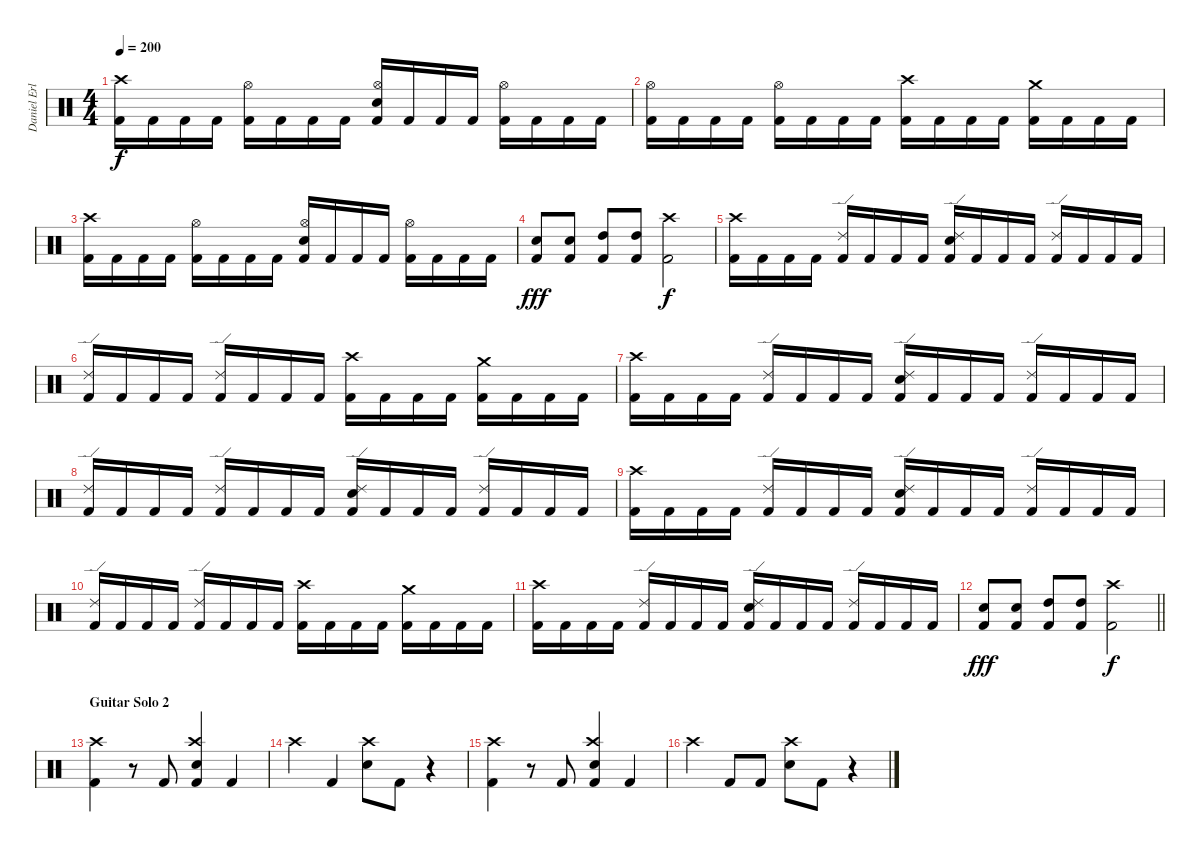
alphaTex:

\track ("Daniel Erlandsson" "Daniel Erl") {instrument percussion}
\staff {score}
\articulation defaults
\ts (4 4)
\tempo 200
\clef neutral
\ks c
("Kick (hit) 2" "Crash high (hit)").16{dy f} "Kick (hit) 2".16 "Kick (hit) 2".16 "Kick (hit) 2".16 ("Kick (hit) 2" "Hi-Hat (open)").16 "Kick (hit) 2".16 "Kick (hit) 2".16 "Kick (hit) 2".16 ("Kick (hit) 2" "Snare (hit) 2" "Hi-Hat (open)").16 "Kick (hit) 2".16 "Kick (hit) 2".16 "Kick (hit) 2".16 ("Kick (hit) 2" "Hi-Hat (open)").16 "Kick (hit) 2".16 "Kick (hit) 2".16 "Kick (hit) 2".16 |
("Kick (hit) 2" "Hi-Hat (open)").16 "Kick (hit) 2".16 "Kick (hit) 2".16 "Kick (hit) 2".16 ("Kick (hit) 2" "Hi-Hat (open)").16 "Kick (hit) 2".16 "Kick (hit) 2".16 "Kick (hit) 2".16 ("Kick (hit) 2" "Crash high (hit)").16 "Kick (hit) 2".16 "Kick (hit) 2".16 "Kick (hit) 2".16 ("Kick (hit) 2" "Crash medium (hit)").16 "Kick (hit) 2".16 "Kick (hit) 2".16 "Kick (hit) 2".16 |
("Kick (hit) 2" "Crash high (hit)").16 "Kick (hit) 2".16 "Kick (hit) 2".16 "Kick (hit) 2".16 ("Kick (hit) 2" "Hi-Hat (open)").16 "Kick (hit) 2".16 "Kick (hit) 2".16 "Kick (hit) 2".16 ("Kick (hit) 2" "Snare (hit) 2" "Hi-Hat (open)").16 "Kick (hit) 2".16 "Kick (hit) 2".16 "Kick (hit) 2".16 ("Kick (hit) 2" "Hi-Hat (open)").16 "Kick (hit) 2".16 "Kick (hit) 2".16 "Kick (hit) 2".16 |
("Kick (hit) 2" "Snare (hit) 2").8{dy fff} ("Kick (hit) 2" "Snare (hit) 2").8 ("Kick (hit) 2" "High Tom (hit)").8 ("Kick (hit) 2" "High Tom (hit)").8 ("Kick (hit) 2" "Crash high (hit)").2{dy f} |
("Kick (hit) 2" "Crash high (hit)").16 "Kick (hit) 2".16 "Kick (hit) 2".16 "Kick (hit) 2".16 ("Kick (hit) 2" "Ride (edge) 2").16 "Kick (hit) 2".16 "Kick (hit) 2".16 "Kick (hit) 2".16 ("Kick (hit) 2" "Snare (hit) 2" "Ride (edge) 2").16 "Kick (hit) 2".16 "Kick (hit) 2".16 "Kick (hit) 2".16 ("Kick (hit) 2" "Ride (edge) 2").16 "Kick (hit) 2".16 "Kick (hit) 2".16 "Kick (hit) 2".16 |
("Kick (hit) 2" "Ride (edge) 2").16 "Kick (hit) 2".16 "Kick (hit) 2".16 "Kick (hit) 2".16 ("Kick (hit) 2" "Ride (edge) 2").16 "Kick (hit) 2".16 "Kick (hit) 2".16 "Kick (hit) 2".16 ("Kick (hit) 2" "Crash high (hit)").16 "Kick (hit) 2".16 "Kick (hit) 2".16 "Kick (hit) 2".16 ("Kick (hit) 2" "Crash medium (hit)").16 "Kick (hit) 2".16 "Kick (hit) 2".16 "Kick (hit) 2".16 |
("Kick (hit) 2" "Crash high (hit)").16 "Kick (hit) 2".16 "Kick (hit) 2".16 "Kick (hit) 2".16 ("Kick (hit) 2" "Ride (edge) 2").16 "Kick (hit) 2".16 "Kick (hit) 2".16 "Kick (hit) 2".16 ("Kick (hit) 2" "Snare (hit) 2" "Ride (edge) 2").16 "Kick (hit) 2".16 "Kick (hit) 2".16 "Kick (hit) 2".16 ("Kick (hit) 2" "Ride (edge) 2").16 "Kick (hit) 2".16 "Kick (hit) 2".16 "Kick (hit) 2".16 |
("Kick (hit) 2" "Ride (edge) 2").16 "Kick (hit) 2".16 "Kick (hit) 2".16 "Kick (hit) 2".16 ("Kick (hit) 2" "Ride (edge) 2").16 "Kick (hit) 2".16 "Kick (hit) 2".16 "Kick (hit) 2".16 ("Kick (hit) 2" "Snare (hit) 2" "Ride (edge) 2").16 "Kick (hit) 2".16 "Kick (hit) 2".16 "Kick (hit) 2".16 ("Kick (hit) 2" "Ride (edge) 2").16 "Kick (hit) 2".16 "Kick (hit) 2".16 "Kick (hit) 2".16 |
("Kick (hit) 2" "Crash high (hit)").16 "Kick (hit) 2".16 "Kick (hit) 2".16 "Kick (hit) 2".16 ("Kick (hit) 2" "Ride (edge) 2").16 "Kick (hit) 2".16 "Kick (hit) 2".16 "Kick (hit) 2".16 ("Kick (hit) 2" "Snare (hit) 2" "Ride (edge) 2").16 "Kick (hit) 2".16 "Kick (hit) 2".16 "Kick (hit) 2".16 ("Kick (hit) 2" "Ride (edge) 2").16 "Kick (hit) 2".16 "Kick (hit) 2".16 "Kick (hit) 2".16 |
("Kick (hit) 2" "Ride (edge) 2").16 "Kick (hit) 2".16 "Kick (hit) 2".16 "Kick (hit) 2".16 ("Kick (hit) 2" "Ride (edge) 2").16 "Kick (hit) 2".16 "Kick (hit) 2".16 "Kick (hit) 2".16 ("Kick (hit) 2" "Crash high (hit)").16 "Kick (hit) 2".16 "Kick (hit) 2".16 "Kick (hit) 2".16 ("Kick (hit) 2" "Crash medium (hit)").16 "Kick (hit) 2".16 "Kick (hit) 2".16 "Kick (hit) 2".16 |
("Kick (hit) 2" "Crash high (hit)").16 "Kick (hit) 2".16 "Kick (hit) 2".16 "Kick (hit) 2".16 ("Kick (hit) 2" "Ride (edge) 2").16 "Kick (hit) 2".16 "Kick (hit) 2".16 "Kick (hit) 2".16 ("Kick (hit) 2" "Snare (hit) 2" "Ride (edge) 2").16 "Kick (hit) 2".16 "Kick (hit) 2".16 "Kick (hit) 2".16 ("Kick (hit) 2" "Ride (edge) 2").16 "Kick (hit) 2".16 "Kick (hit) 2".16 "Kick (hit) 2".16 |
\barLineRight lightlight
("Kick (hit) 2" "Snare (hit) 2").8{dy fff} ("Kick (hit) 2" "Snare (hit) 2").8 ("Kick (hit) 2" "High Tom (hit)").8 ("Kick (hit) 2" "High Tom (hit)").8 ("Kick (hit) 2" "Crash high (hit)").2{dy f} |
\section ("" "Guitar Solo 2")
("Kick (hit) 2" "Crash high (hit)").4 r.8 "Kick (hit) 2".8 ("Kick (hit) 2" "Snare (hit) 2" "Crash high (hit)").4 "Kick (hit) 2".4 |
"Crash high (hit)".4 "Kick (hit) 2".4 ("Snare (hit) 2" "Crash high (hit)").8 "Kick (hit) 2".8 r.4 |
("Kick (hit) 2" "Crash high (hit)").4 r.8 "Kick (hit) 2".8 ("Kick (hit) 2" "Snare (hit) 2" "Crash high (hit)").4 "Kick (hit) 2".4 |
"Crash high (hit)".4 "Kick (hit) 2".8 "Kick (hit) 2".8 ("Snare (hit) 2" "Crash high (hit)").8 "Kick (hit) 2".8 r.4
